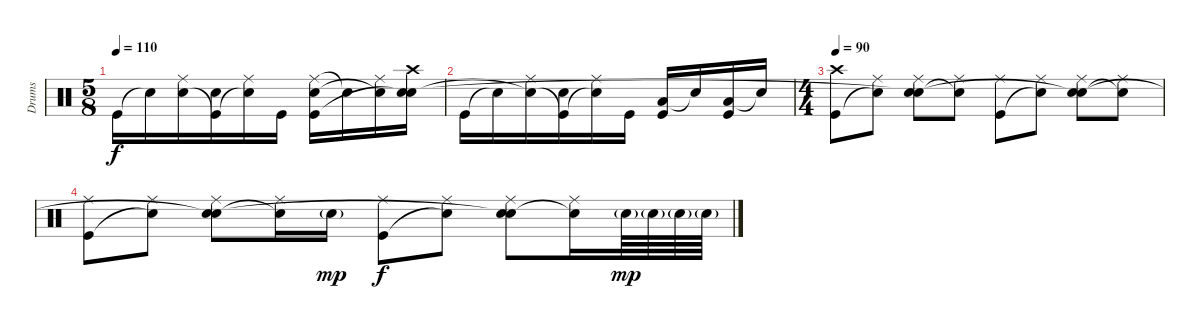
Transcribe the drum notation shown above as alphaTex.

\track ("Drums" "Drums") {instrument percussion}
\staff {score}
\articulation defaults
\ts (5 8)
\tempo 110
\clef neutral
\ks c "Kick (hit)".16{dy f} "Snare (hit)"{t}.16
("Ride (middle)" "Snare (hit)"{t}).16 ("Electric Snare (hit)" "Kick (hit)"{t}).16 ("Ride (middle)" "Snare (hit)"{t}).16 "Kick (hit)".16 ("Ride (middle)" "Electric Snare (hit)" "Kick (hit)"{t}).16 "Snare (hit)"{t}.16 ("Ride (middle)" "Snare (hit)"{t}).16 ("Crash high (hit)" "Electric Snare (hit)" "Snare (hit)"{t}).16 |
"Kick (hit)".16 "Snare (hit)"{t}.16 ("Ride (middle)" "Snare (hit)"{t}).16 ("Electric Snare (hit)" "Kick (hit)"{t}).16 ("Ride (middle)" "Snare (hit)"{t}).16 "Kick (hit)".16 ("Low Tom (hit)" "Kick (hit)").16 "Snare (hit)"{t}.16 ("Low Tom (hit)" "Kick (hit)").16 "Snare (hit)"{t}.16 |
\ts (4 4)
\tempo 90
("Crash high (hit)" "Kick (hit)").8 ("Ride (middle)" "Snare (hit)"{t}).8 ("Ride (middle)" "Electric Snare (hit)" "Snare (hit)"{t}).8 ("Ride (middle)" "Snare (hit)"{t}).8 ("Ride (middle)" "Kick (hit)").8 ("Ride (middle)" "Snare (hit)"{t}).8 ("Ride (middle)" "Electric Snare (hit)" "Snare (hit)"{t}).8 ("Ride (middle)" "Snare (hit)"{t}).8 |
("Ride (middle)" "Kick (hit)").8 ("Ride (middle)" "Snare (hit)"{t}).8 ("Ride (middle)" "Electric Snare (hit)" "Snare (hit)"{t}).8 ("Ride (middle)" "Snare (hit)"{t}).16 "Electric Snare (hit)"{g}.16{dy mp} ("Ride (middle)" "Kick (hit)").8{dy f} ("Ride (middle)" "Snare (hit)"{t}).8 ("Ride (middle)" "Electric Snare (hit)" "Snare (hit)"{t}).8 ("Ride (middle)" "Snare (hit)"{t}).16 "Electric Snare (hit)"{g}.64{dy mp} "Electric Snare (hit)"{g}.64 "Electric Snare (hit)"{g}.64 "Electric Snare (hit)"{g}.64
